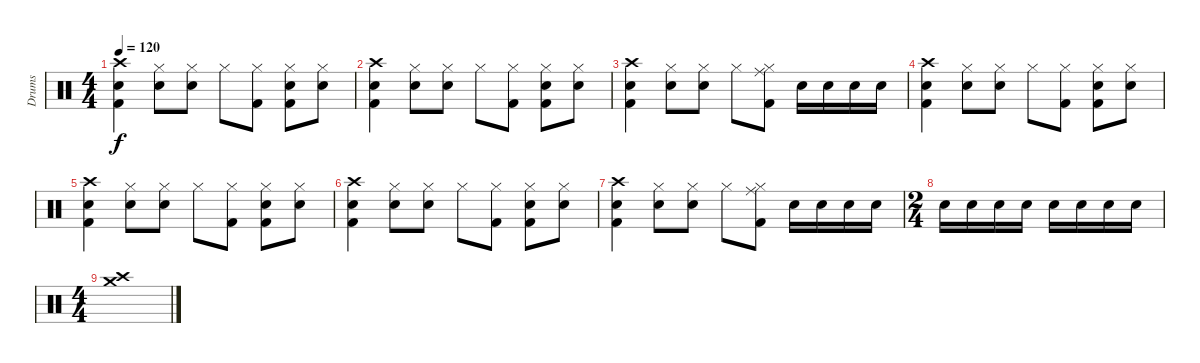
\track ("Drums" "Drums") {instrument percussion}
\staff {score}
\articulation defaults
\ts (4 4)
\tempo 120
\clef neutral
\ks c
("Crash high (hit)" "Kick (hit) 2" "Snare (hit) 2").4{dy f} ("Hi-Hat (closed)" "Snare (hit) 2").8 ("Hi-Hat (closed)" "Snare (hit) 2").8 "Hi-Hat (closed)".8 ("Hi-Hat (closed)" "Kick (hit) 2").8 ("Hi-Hat (closed)" "Kick (hit) 2" "Snare (hit) 2").8 ("Hi-Hat (closed)" "Snare (hit) 2").8 |
("Crash high (hit)" "Kick (hit) 2" "Snare (hit) 2").4 ("Hi-Hat (closed)" "Snare (hit) 2").8 ("Hi-Hat (closed)" "Snare (hit) 2").8 "Hi-Hat (closed)".8 ("Hi-Hat (closed)" "Kick (hit) 2").8 ("Hi-Hat (closed)" "Kick (hit) 2" "Snare (hit) 2").8 ("Hi-Hat (closed)" "Snare (hit) 2").8 |
("Crash high (hit)" "Kick (hit) 2" "Snare (hit) 2").4 ("Hi-Hat (closed)" "Snare (hit) 2").8 ("Hi-Hat (closed)" "Snare (hit) 2").8 "Hi-Hat (closed)".8 ("Ride (middle)" "Hi-Hat (closed)" "Kick (hit) 2").8 "Electric Snare (hit)".16 "Electric Snare (hit)".16 "Electric Snare (hit)".16 "Electric Snare (hit)".16 |
("Crash high (hit)" "Kick (hit) 2" "Snare (hit) 2").4 ("Hi-Hat (closed)" "Snare (hit) 2").8 ("Hi-Hat (closed)" "Snare (hit) 2").8 "Hi-Hat (closed)".8 ("Hi-Hat (closed)" "Kick (hit) 2").8 ("Hi-Hat (closed)" "Kick (hit) 2" "Snare (hit) 2").8 ("Hi-Hat (closed)" "Snare (hit) 2").8 |
("Crash high (hit)" "Kick (hit) 2" "Snare (hit) 2").4 ("Hi-Hat (closed)" "Snare (hit) 2").8 ("Hi-Hat (closed)" "Snare (hit) 2").8 "Hi-Hat (closed)".8 ("Hi-Hat (closed)" "Kick (hit) 2").8 ("Hi-Hat (closed)" "Kick (hit) 2" "Snare (hit) 2").8 ("Hi-Hat (closed)" "Snare (hit) 2").8 |
("Crash high (hit)" "Kick (hit) 2" "Snare (hit) 2").4 ("Hi-Hat (closed)" "Snare (hit) 2").8 ("Hi-Hat (closed)" "Snare (hit) 2").8 "Hi-Hat (closed)".8 ("Hi-Hat (closed)" "Kick (hit) 2").8 ("Hi-Hat (closed)" "Kick (hit) 2" "Snare (hit) 2").8 ("Hi-Hat (closed)" "Snare (hit) 2").8 |
("Crash high (hit)" "Kick (hit) 2" "Snare (hit) 2").4 ("Hi-Hat (closed)" "Snare (hit) 2").8 ("Hi-Hat (closed)" "Snare (hit) 2").8 "Hi-Hat (closed)".8 ("Ride (middle)" "Hi-Hat (closed)" "Kick (hit) 2").8 "Electric Snare (hit)".16 "Electric Snare (hit)".16 "Electric Snare (hit)".16 "Electric Snare (hit)".16 |
\ts (2 4)
"Electric Snare (hit)".16 "Electric Snare (hit)".16 "Electric Snare (hit)".16 "Electric Snare (hit)".16 "Electric Snare (hit)".16 "Electric Snare (hit)".16 "Electric Snare (hit)".16 "Electric Snare (hit)".16 |
\ts (4 4)
("Crash high (hit)" "Crash medium (hit)").1
